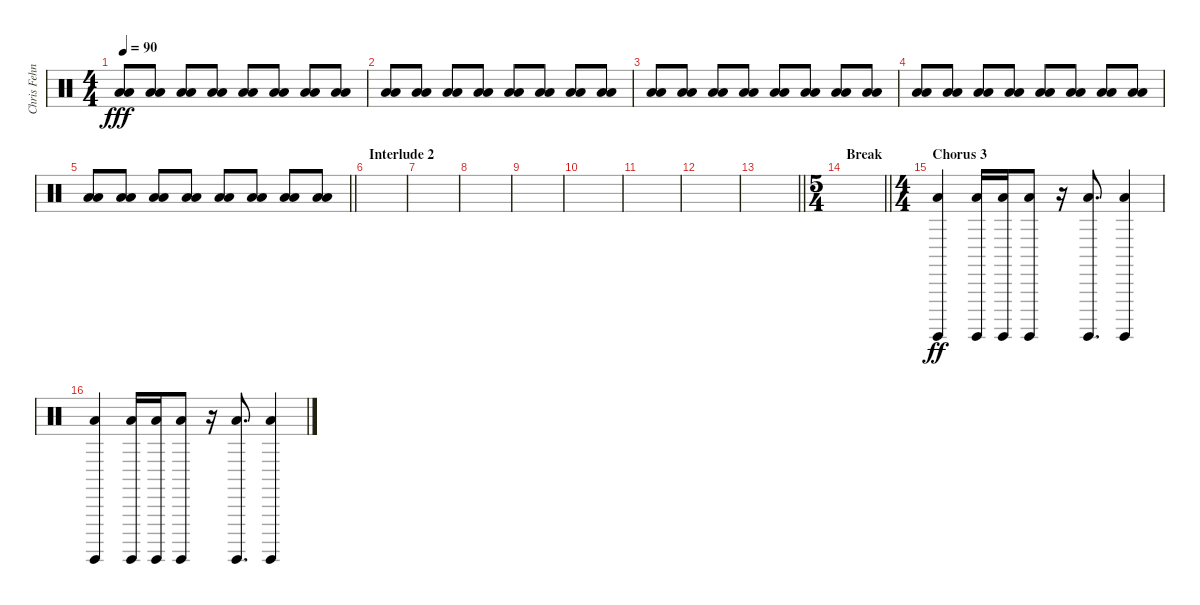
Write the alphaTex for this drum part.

\track ("Chris Fehn" "Chris Fehn") {instrument percussion}
\staff {score}
\articulation defaults
\ts (4 4)
\tempo 90
\clef neutral
\ks c
("Low Floor Tom (hit)" "Low Floor Tom (hit)").8{dy fff} ("Low Floor Tom (hit)" "Low Floor Tom (hit)").8 ("Low Floor Tom (hit)" "Low Floor Tom (hit)").8 ("Low Floor Tom (hit)" "Low Floor Tom (hit)").8 ("Low Floor Tom (hit)" "Low Floor Tom (hit)").8 ("Low Floor Tom (hit)" "Low Floor Tom (hit)").8 ("Low Floor Tom (hit)" "Low Floor Tom (hit)").8 ("Low Floor Tom (hit)" "Low Floor Tom (hit)").8 |
("Low Floor Tom (hit)" "Low Floor Tom (hit)").8 ("Low Floor Tom (hit)" "Low Floor Tom (hit)").8 ("Low Floor Tom (hit)" "Low Floor Tom (hit)").8 ("Low Floor Tom (hit)" "Low Floor Tom (hit)").8 ("Low Floor Tom (hit)" "Low Floor Tom (hit)").8 ("Low Floor Tom (hit)" "Low Floor Tom (hit)").8 ("Low Floor Tom (hit)" "Low Floor Tom (hit)").8 ("Low Floor Tom (hit)" "Low Floor Tom (hit)").8 |
("Low Floor Tom (hit)" "Low Floor Tom (hit)").8 ("Low Floor Tom (hit)" "Low Floor Tom (hit)").8 ("Low Floor Tom (hit)" "Low Floor Tom (hit)").8 ("Low Floor Tom (hit)" "Low Floor Tom (hit)").8 ("Low Floor Tom (hit)" "Low Floor Tom (hit)").8 ("Low Floor Tom (hit)" "Low Floor Tom (hit)").8 ("Low Floor Tom (hit)" "Low Floor Tom (hit)").8 ("Low Floor Tom (hit)" "Low Floor Tom (hit)").8 |
("Low Floor Tom (hit)" "Low Floor Tom (hit)").8 ("Low Floor Tom (hit)" "Low Floor Tom (hit)").8 ("Low Floor Tom (hit)" "Low Floor Tom (hit)").8 ("Low Floor Tom (hit)" "Low Floor Tom (hit)").8 ("Low Floor Tom (hit)" "Low Floor Tom (hit)").8 ("Low Floor Tom (hit)" "Low Floor Tom (hit)").8 ("Low Floor Tom (hit)" "Low Floor Tom (hit)").8 ("Low Floor Tom (hit)" "Low Floor Tom (hit)").8 |
\barLineRight lightlight
("Low Floor Tom (hit)" "Low Floor Tom (hit)").8 ("Low Floor Tom (hit)" "Low Floor Tom (hit)").8 ("Low Floor Tom (hit)" "Low Floor Tom (hit)").8 ("Low Floor Tom (hit)" "Low Floor Tom (hit)").8 ("Low Floor Tom (hit)" "Low Floor Tom (hit)").8 ("Low Floor Tom (hit)" "Low Floor Tom (hit)").8 ("Low Floor Tom (hit)" "Low Floor Tom (hit)").8 ("Low Floor Tom (hit)" "Low Floor Tom (hit)").8 |
\section ("" "Interlude 2")
|
|
|
|
|
|
|
\barLineRight lightlight
|
\ts (5 4)
\section ("" "Break")
\barLineRight lightlight
|
\ts (4 4)
\section ("" "Chorus 3")
("Surdo (hit)" "Low Floor Tom (hit)").4{dy ff} ("Surdo (hit)" "Low Floor Tom (hit)").16 ("Surdo (hit)" "Low Floor Tom (hit)").16 ("Surdo (hit)" "Low Floor Tom (hit)").8 r.16 ("Surdo (hit)" "Low Floor Tom (hit)").8{d} ("Surdo (hit)" "Low Floor Tom (hit)").4 |
("Surdo (hit)" "Low Floor Tom (hit)").4 ("Surdo (hit)" "Low Floor Tom (hit)").16 ("Surdo (hit)" "Low Floor Tom (hit)").16 ("Surdo (hit)" "Low Floor Tom (hit)").8 r.16 ("Surdo (hit)" "Low Floor Tom (hit)").8{d} ("Surdo (hit)" "Low Floor Tom (hit)").4
